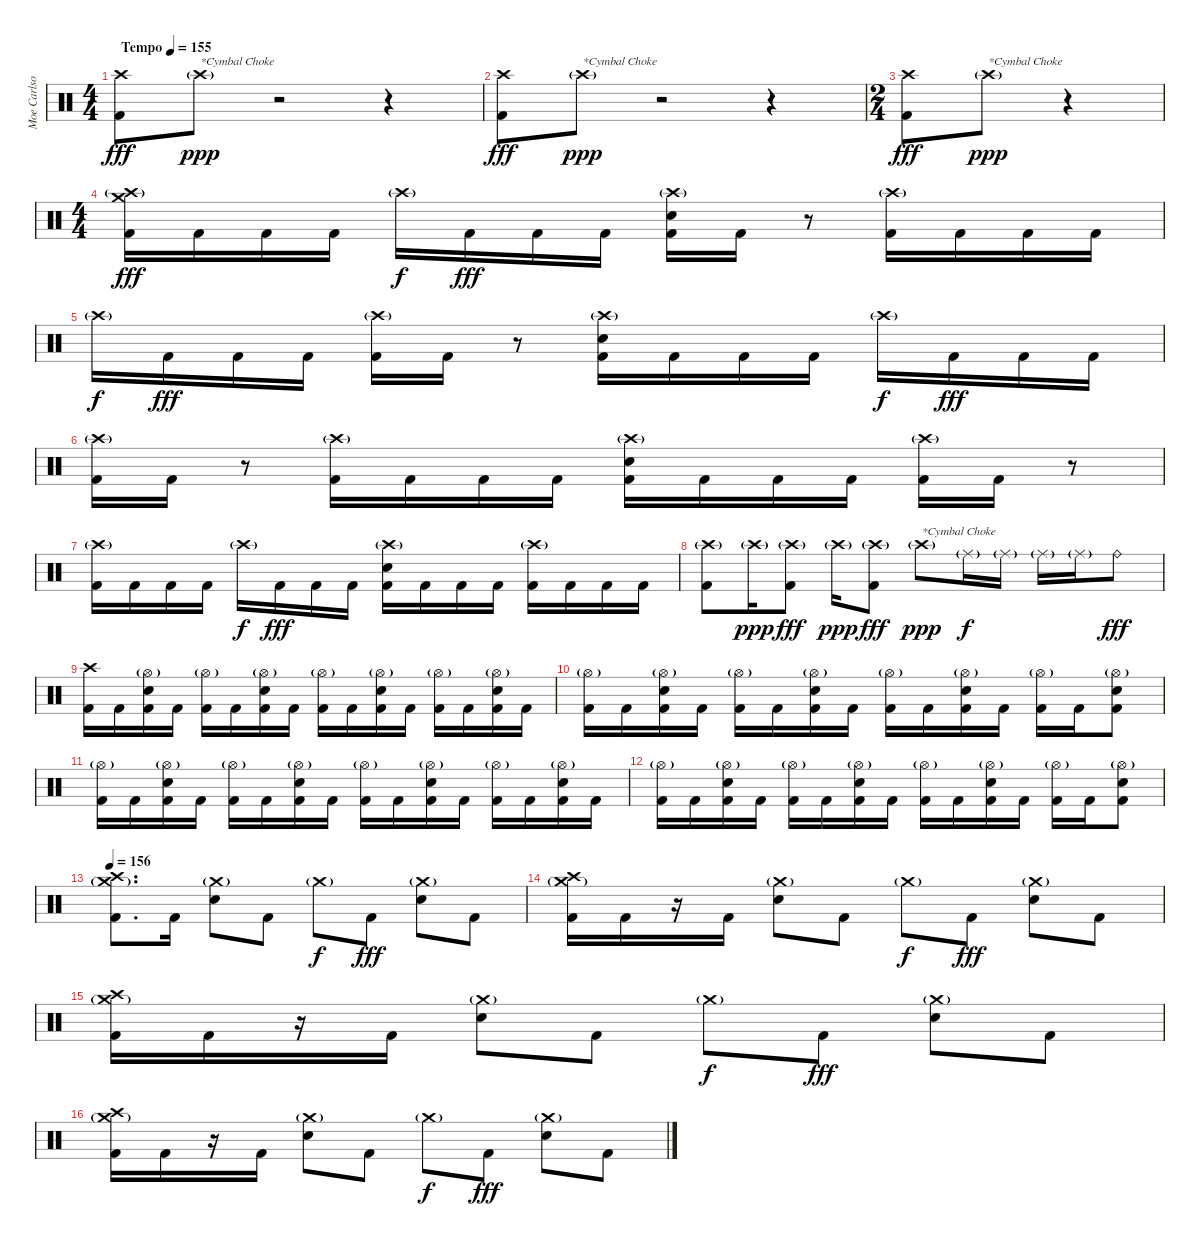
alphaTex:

\track ("Moe Carlson - Percussion" "Moe Carlso") {instrument percussion}
\staff {score}
\articulation defaults
\ts (4 4)
\tempo (155 "Tempo")
\clef neutral
\ks c
("Crash high (hit)" "Kick (hit) 2").8{dy fff} "Crash high (hit)"{g}.8{txt "*Cymbal Choke" dy ppp} r.2 r.4 |
("Crash high (hit)" "Kick (hit) 2").8{dy fff} "Crash high (hit)"{g}.8{txt "*Cymbal Choke" dy ppp} r.2 r.4 |
\ts (2 4)
("Crash high (hit)" "Kick (hit) 2").8{dy fff} "Crash high (hit)"{g}.8{txt "*Cymbal Choke" dy ppp} r.4 |
\ts (4 4)
("Crash high (hit)"{g} "Crash medium (hit)" "Kick (hit) 2").16{dy fff} "Kick (hit) 2".16 "Kick (hit) 2".16 "Kick (hit) 2".16 "Crash high (hit)"{g}.16{dy f} "Kick (hit) 2".16{dy fff} "Kick (hit) 2".16 "Kick (hit) 2".16 ("Crash high (hit)"{g} "Electric Snare (hit)" "Kick (hit) 2").16 "Kick (hit) 2".16 r.8 ("Crash high (hit)"{g} "Kick (hit) 2").16 "Kick (hit) 2".16 "Kick (hit) 2".16 "Kick (hit) 2".16 |
"Crash high (hit)"{g}.16{dy f} "Kick (hit) 2".16{dy fff} "Kick (hit) 2".16 "Kick (hit) 2".16 ("Crash high (hit)"{g} "Kick (hit) 2").16 "Kick (hit) 2".16 r.8 ("Crash high (hit)"{g} "Electric Snare (hit)" "Kick (hit) 2").16 "Kick (hit) 2".16 "Kick (hit) 2".16 "Kick (hit) 2".16 "Crash high (hit)"{g}.16{dy f} "Kick (hit) 2".16{dy fff} "Kick (hit) 2".16 "Kick (hit) 2".16 |
("Crash high (hit)"{g} "Kick (hit) 2").16 "Kick (hit) 2".16 r.8 ("Crash high (hit)"{g} "Kick (hit) 2").16 "Kick (hit) 2".16 "Kick (hit) 2".16 "Kick (hit) 2".16 ("Crash high (hit)"{g} "Electric Snare (hit)" "Kick (hit) 2").16 "Kick (hit) 2".16 "Kick (hit) 2".16 "Kick (hit) 2".16 ("Crash high (hit)"{g} "Kick (hit) 2").16 "Kick (hit) 2".16 r.8 |
("Crash high (hit)"{g} "Kick (hit) 2").16 "Kick (hit) 2".16 "Kick (hit) 2".16 "Kick (hit) 2".16 "Crash high (hit)"{g}.16{dy f} "Kick (hit) 2".16{dy fff} "Kick (hit) 2".16 "Kick (hit) 2".16 ("Crash high (hit)"{g} "Electric Snare (hit)" "Kick (hit) 2").16 "Kick (hit) 2".16 "Kick (hit) 2".16 "Kick (hit) 2".16 ("Crash high (hit)"{g} "Kick (hit) 2").16 "Kick (hit) 2".16 "Kick (hit) 2".16 "Kick (hit) 2".16 |
("Crash high (hit)"{g} "Kick (hit) 2").8 "Crash high (hit)"{g}.16{dy ppp} ("Crash high (hit)"{g} "Kick (hit) 2").8{dy fff} "Crash high (hit)"{g}.16{dy ppp} ("Crash high (hit)"{g} "Kick (hit) 2").8{dy fff} "Crash high (hit)"{g}.8{txt "*Cymbal Choke" dy ppp} "Ride (middle)"{g}.16{dy f} "Ride (middle)"{g}.16 "Ride (middle)"{g}.16 "Ride (middle)"{g}.16 "Ride (bell)".8{dy fff} |
("Crash high (hit)" "Kick (hit) 2").16 "Kick (hit) 2".16 ("Hi-Hat (open)"{g} "Electric Snare (hit)" "Kick (hit) 2").16 "Kick (hit) 2".16 ("Hi-Hat (open)"{g} "Kick (hit) 2").16 "Kick (hit) 2".16 ("Hi-Hat (open)"{g} "Electric Snare (hit)" "Kick (hit) 2").16 "Kick (hit) 2".16 ("Hi-Hat (open)"{g} "Kick (hit) 2").16 "Kick (hit) 2".16 ("Hi-Hat (open)"{g} "Electric Snare (hit)" "Kick (hit) 2").16 "Kick (hit) 2".16 ("Hi-Hat (open)"{g} "Kick (hit) 2").16 "Kick (hit) 2".16 ("Hi-Hat (open)"{g} "Electric Snare (hit)" "Kick (hit) 2").16 "Kick (hit) 2".16 |
("Hi-Hat (open)"{g} "Kick (hit) 2").16 "Kick (hit) 2".16 ("Hi-Hat (open)"{g} "Electric Snare (hit)" "Kick (hit) 2").16 "Kick (hit) 2".16 ("Hi-Hat (open)"{g} "Kick (hit) 2").16 "Kick (hit) 2".16 ("Hi-Hat (open)"{g} "Electric Snare (hit)" "Kick (hit) 2").16 "Kick (hit) 2".16 ("Hi-Hat (open)"{g} "Kick (hit) 2").16 "Kick (hit) 2".16 ("Hi-Hat (open)"{g} "Electric Snare (hit)" "Kick (hit) 2").16 "Kick (hit) 2".16 ("Hi-Hat (open)"{g} "Kick (hit) 2").16 "Kick (hit) 2".16 ("Hi-Hat (open)"{g} "Electric Snare (hit)" "Kick (hit) 2").8 |
("Hi-Hat (open)"{g} "Kick (hit) 2").16 "Kick (hit) 2".16 ("Hi-Hat (open)"{g} "Electric Snare (hit)" "Kick (hit) 2").16 "Kick (hit) 2".16 ("Hi-Hat (open)"{g} "Kick (hit) 2").16 "Kick (hit) 2".16 ("Hi-Hat (open)"{g} "Electric Snare (hit)" "Kick (hit) 2").16 "Kick (hit) 2".16 ("Hi-Hat (open)"{g} "Kick (hit) 2").16 "Kick (hit) 2".16 ("Hi-Hat (open)"{g} "Electric Snare (hit)" "Kick (hit) 2").16 "Kick (hit) 2".16 ("Hi-Hat (open)"{g} "Kick (hit) 2").16 "Kick (hit) 2".16 ("Hi-Hat (open)"{g} "Electric Snare (hit)" "Kick (hit) 2").16 "Kick (hit) 2".16 |
("Hi-Hat (open)"{g} "Kick (hit) 2").16 "Kick (hit) 2".16 ("Hi-Hat (open)"{g} "Electric Snare (hit)" "Kick (hit) 2").16 "Kick (hit) 2".16 ("Hi-Hat (open)"{g} "Kick (hit) 2").16 "Kick (hit) 2".16 ("Hi-Hat (open)"{g} "Electric Snare (hit)" "Kick (hit) 2").16 "Kick (hit) 2".16 ("Hi-Hat (open)"{g} "Kick (hit) 2").16 "Kick (hit) 2".16 ("Hi-Hat (open)"{g} "Electric Snare (hit)" "Kick (hit) 2").16 "Kick (hit) 2".16 ("Hi-Hat (open)"{g} "Kick (hit) 2").16 "Kick (hit) 2".16 ("Hi-Hat (open)"{g} "Electric Snare (hit)" "Kick (hit) 2").8 |
\tempo 156
("Crash medium (hit)"{g} "Crash high (hit)" "Kick (hit) 2").8{d} "Kick (hit) 2".16 ("Crash medium (hit)"{g} "Electric Snare (hit)").8 "Kick (hit) 2".8 "Crash medium (hit)"{g}.8{dy f} "Kick (hit) 2".8{dy fff} ("Crash medium (hit)"{g} "Electric Snare (hit)").8 "Kick (hit) 2".8 |
("Crash medium (hit)"{g} "Crash high (hit)" "Kick (hit) 2").16 "Kick (hit) 2".16 r.16 "Kick (hit) 2".16 ("Crash medium (hit)"{g} "Electric Snare (hit)").8 "Kick (hit) 2".8 "Crash medium (hit)"{g}.8{dy f} "Kick (hit) 2".8{dy fff} ("Crash medium (hit)"{g} "Electric Snare (hit)").8 "Kick (hit) 2".8 |
("Crash medium (hit)"{g} "Crash high (hit)" "Kick (hit) 2").16 "Kick (hit) 2".16 r.16 "Kick (hit) 2".16 ("Crash medium (hit)"{g} "Electric Snare (hit)").8 "Kick (hit) 2".8 "Crash medium (hit)"{g}.8{dy f} "Kick (hit) 2".8{dy fff} ("Crash medium (hit)"{g} "Electric Snare (hit)").8 "Kick (hit) 2".8 |
("Crash medium (hit)"{g} "Crash high (hit)" "Kick (hit) 2").16 "Kick (hit) 2".16 r.16 "Kick (hit) 2".16 ("Crash medium (hit)"{g} "Electric Snare (hit)").8 "Kick (hit) 2".8 "Crash medium (hit)"{g}.8{dy f} "Kick (hit) 2".8{dy fff} ("Crash medium (hit)"{g} "Electric Snare (hit)").8 "Kick (hit) 2".8
